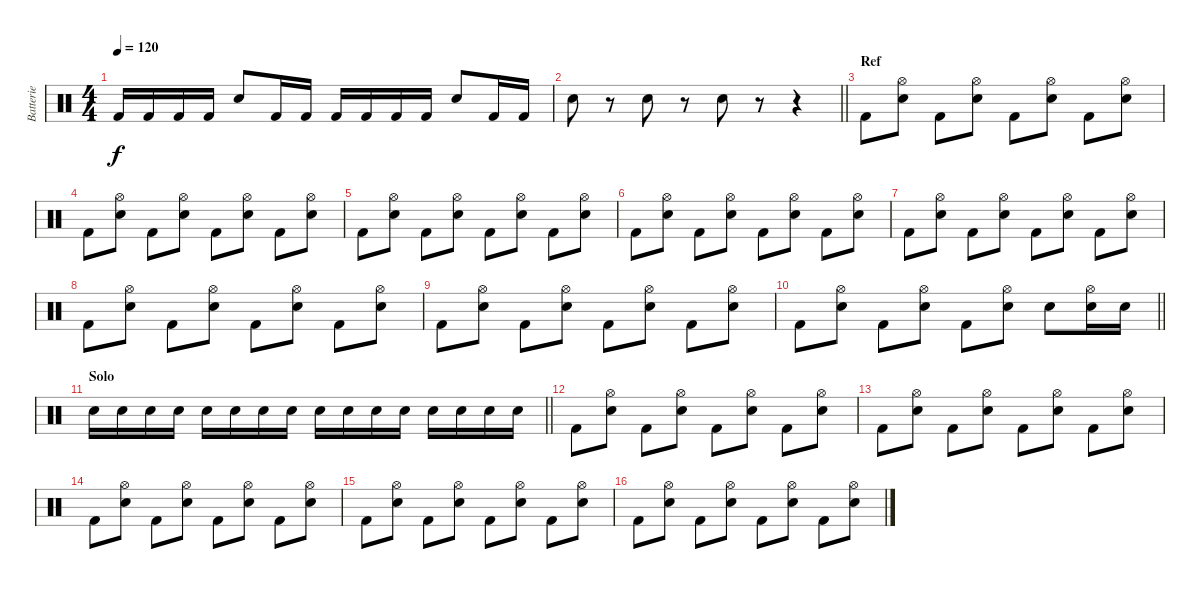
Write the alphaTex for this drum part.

\track ("Batterie" "Batterie") {instrument percussion}
\staff {score}
\articulation defaults
\ts (4 4)
\tempo 120
\clef neutral
\ks c "Kick (hit) 2".16{dy f} "Kick (hit) 2".16 "Kick (hit) 2".16 "Kick (hit) 2".16 "Electric Snare (hit)".8 "Kick (hit) 2".16 "Kick (hit) 2".16 "Kick (hit) 2".16 "Kick (hit) 2".16 "Kick (hit) 2".16 "Kick (hit) 2".16 "Electric Snare (hit)".8 "Kick (hit) 2".16 "Kick (hit) 2".16
|
\barLineRight lightlight "Electric Snare (hit)".8
r.8 "Electric Snare (hit)".8 r.8 "Electric Snare (hit)".8 r.8 r.4 |
\section ("" "Ref")
"Kick (hit) 2".8 ("Hi-Hat (open)" "Electric Snare (hit)").8 "Kick (hit) 2".8 ("Hi-Hat (open)" "Electric Snare (hit)").8 "Kick (hit) 2".8 ("Hi-Hat (open)" "Electric Snare (hit)").8 "Kick (hit) 2".8 ("Hi-Hat (open)" "Electric Snare (hit)").8 |
"Kick (hit) 2".8 ("Hi-Hat (open)" "Electric Snare (hit)").8 "Kick (hit) 2".8 ("Hi-Hat (open)" "Electric Snare (hit)").8 "Kick (hit) 2".8 ("Hi-Hat (open)" "Electric Snare (hit)").8 "Kick (hit) 2".8 ("Hi-Hat (open)" "Electric Snare (hit)").8 |
"Kick (hit) 2".8 ("Hi-Hat (open)" "Electric Snare (hit)").8 "Kick (hit) 2".8 ("Hi-Hat (open)" "Electric Snare (hit)").8 "Kick (hit) 2".8 ("Hi-Hat (open)" "Electric Snare (hit)").8 "Kick (hit) 2".8 ("Hi-Hat (open)" "Electric Snare (hit)").8 |
"Kick (hit) 2".8 ("Hi-Hat (open)" "Electric Snare (hit)").8 "Kick (hit) 2".8 ("Hi-Hat (open)" "Electric Snare (hit)").8 "Kick (hit) 2".8 ("Hi-Hat (open)" "Electric Snare (hit)").8 "Kick (hit) 2".8 ("Hi-Hat (open)" "Electric Snare (hit)").8 |
"Kick (hit) 2".8 ("Hi-Hat (open)" "Electric Snare (hit)").8 "Kick (hit) 2".8 ("Hi-Hat (open)" "Electric Snare (hit)").8 "Kick (hit) 2".8 ("Hi-Hat (open)" "Electric Snare (hit)").8 "Kick (hit) 2".8 ("Hi-Hat (open)" "Electric Snare (hit)").8 |
"Kick (hit) 2".8 ("Hi-Hat (open)" "Electric Snare (hit)").8 "Kick (hit) 2".8 ("Hi-Hat (open)" "Electric Snare (hit)").8 "Kick (hit) 2".8 ("Hi-Hat (open)" "Electric Snare (hit)").8 "Kick (hit) 2".8 ("Hi-Hat (open)" "Electric Snare (hit)").8 |
"Kick (hit) 2".8 ("Hi-Hat (open)" "Electric Snare (hit)").8 "Kick (hit) 2".8 ("Hi-Hat (open)" "Electric Snare (hit)").8 "Kick (hit) 2".8 ("Hi-Hat (open)" "Electric Snare (hit)").8 "Kick (hit) 2".8 ("Hi-Hat (open)" "Electric Snare (hit)").8 |
\barLineRight lightlight "Kick (hit) 2".8
("Hi-Hat (open)" "Electric Snare (hit)").8 "Kick (hit) 2".8 ("Hi-Hat (open)" "Electric Snare (hit)").8 "Kick (hit) 2".8 ("Hi-Hat (open)" "Electric Snare (hit)").8 "Electric Snare (hit)".8 ("Hi-Hat (open)" "Electric Snare (hit)").16 "Electric Snare (hit)".16 |
\section ("" "Solo")
\barLineRight lightlight "Electric Snare (hit)".16 "Electric Snare (hit)".16 "Electric Snare (hit)".16 "Electric Snare (hit)".16 "Electric Snare (hit)".16 "Electric Snare (hit)".16 "Electric Snare (hit)".16 "Electric Snare (hit)".16 "Electric Snare (hit)".16 "Electric Snare (hit)".16 "Electric Snare (hit)".16 "Electric Snare (hit)".16 "Electric Snare (hit)".16 "Electric Snare (hit)".16 "Electric Snare (hit)".16 "Electric Snare (hit)".16
|
"Kick (hit) 2".8 ("Hi-Hat (open)" "Electric Snare (hit)").8 "Kick (hit) 2".8 ("Hi-Hat (open)" "Electric Snare (hit)").8 "Kick (hit) 2".8 ("Hi-Hat (open)" "Electric Snare (hit)").8 "Kick (hit) 2".8 ("Hi-Hat (open)" "Electric Snare (hit)").8 |
"Kick (hit) 2".8 ("Hi-Hat (open)" "Electric Snare (hit)").8 "Kick (hit) 2".8 ("Hi-Hat (open)" "Electric Snare (hit)").8 "Kick (hit) 2".8 ("Hi-Hat (open)" "Electric Snare (hit)").8 "Kick (hit) 2".8 ("Hi-Hat (open)" "Electric Snare (hit)").8 |
"Kick (hit) 2".8 ("Hi-Hat (open)" "Electric Snare (hit)").8 "Kick (hit) 2".8 ("Hi-Hat (open)" "Electric Snare (hit)").8 "Kick (hit) 2".8 ("Hi-Hat (open)" "Electric Snare (hit)").8 "Kick (hit) 2".8 ("Hi-Hat (open)" "Electric Snare (hit)").8 |
"Kick (hit) 2".8 ("Hi-Hat (open)" "Electric Snare (hit)").8 "Kick (hit) 2".8 ("Hi-Hat (open)" "Electric Snare (hit)").8 "Kick (hit) 2".8 ("Hi-Hat (open)" "Electric Snare (hit)").8 "Kick (hit) 2".8 ("Hi-Hat (open)" "Electric Snare (hit)").8 |
"Kick (hit) 2".8 ("Hi-Hat (open)" "Electric Snare (hit)").8 "Kick (hit) 2".8 ("Hi-Hat (open)" "Electric Snare (hit)").8 "Kick (hit) 2".8 ("Hi-Hat (open)" "Electric Snare (hit)").8 "Kick (hit) 2".8 ("Hi-Hat (open)" "Electric Snare (hit)").8
